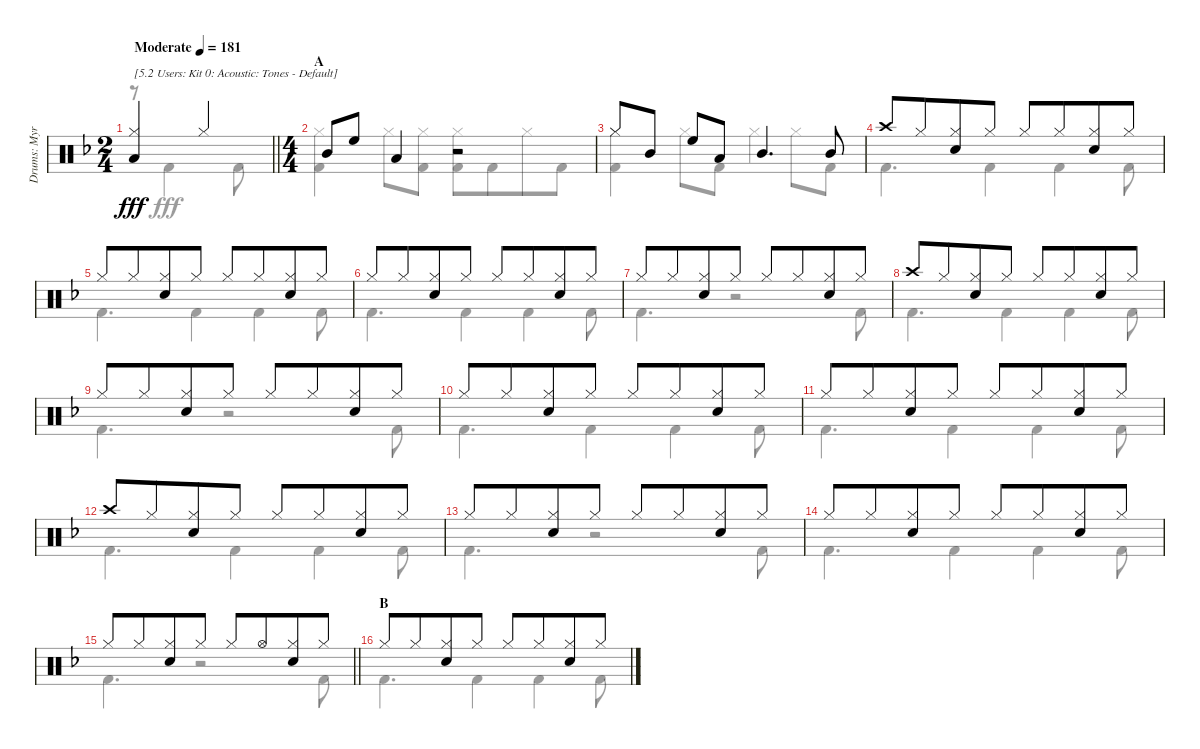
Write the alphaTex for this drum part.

\track ("Drums: Myron" "Drums: Myr") {instrument percussion}
\staff {score}
\articulation defaults
\voice
\ts (2 4)
\tempo (181 "Moderate")
\clef neutral
\barLineRight lightlight
\ks f
("Hi-Hat (closed)" "Low Tom (hit)").4{txt "[5.2 Users: Kit 0: Acoustic: Tones - Default]" dy fff} "Hi-Hat (closed)".4 |
\ts (4 4)
\section ("" "A")
"Mid Tom (hit)".8 "High Floor Tom (hit)".8 "Low Tom (hit)".4 r.2 |
"Hi-Hat (closed)".8 "Mid Tom (hit)".8 "High Floor Tom (hit)".8 "Low Tom (hit)".8 "Mid Tom (hit)".4{d} "Mid Tom (hit)".8 |
"Crash high (hit)".8 "Hi-Hat (closed)".8{beam merge} ("Hi-Hat (closed)" "Electric Snare (hit)").8 "Hi-Hat (closed)".8 "Hi-Hat (closed)".8 "Hi-Hat (closed)".8{beam merge} ("Hi-Hat (closed)" "Electric Snare (hit)").8 "Hi-Hat (closed)".8 |
"Hi-Hat (closed)".8 "Hi-Hat (closed)".8{beam merge} ("Hi-Hat (closed)" "Electric Snare (hit)").8 "Hi-Hat (closed)".8 "Hi-Hat (closed)".8 "Hi-Hat (closed)".8{beam merge} ("Hi-Hat (closed)" "Electric Snare (hit)").8 "Hi-Hat (closed)".8 |
"Hi-Hat (closed)".8 "Hi-Hat (closed)".8{beam merge} ("Hi-Hat (closed)" "Electric Snare (hit)").8 "Hi-Hat (closed)".8 "Hi-Hat (closed)".8 "Hi-Hat (closed)".8{beam merge} ("Hi-Hat (closed)" "Electric Snare (hit)").8 "Hi-Hat (closed)".8 |
"Hi-Hat (closed)".8 "Hi-Hat (closed)".8{beam merge} ("Hi-Hat (closed)" "Electric Snare (hit)").8 "Hi-Hat (closed)".8 "Hi-Hat (closed)".8 "Hi-Hat (closed)".8{beam merge} ("Hi-Hat (closed)" "Electric Snare (hit)").8 "Hi-Hat (closed)".8 |
"Crash high (hit)".8 "Hi-Hat (closed)".8{beam merge} ("Hi-Hat (closed)" "Electric Snare (hit)").8 "Hi-Hat (closed)".8 "Hi-Hat (closed)".8 "Hi-Hat (closed)".8{beam merge} ("Hi-Hat (closed)" "Electric Snare (hit)").8 "Hi-Hat (closed)".8 |
"Hi-Hat (closed)".8 "Hi-Hat (closed)".8{beam merge} ("Hi-Hat (closed)" "Electric Snare (hit)").8 "Hi-Hat (closed)".8 "Hi-Hat (closed)".8 "Hi-Hat (closed)".8{beam merge} ("Hi-Hat (closed)" "Electric Snare (hit)").8 "Hi-Hat (closed)".8 |
"Hi-Hat (closed)".8 "Hi-Hat (closed)".8{beam merge} ("Hi-Hat (closed)" "Electric Snare (hit)").8 "Hi-Hat (closed)".8 "Hi-Hat (closed)".8 "Hi-Hat (closed)".8{beam merge} ("Hi-Hat (closed)" "Electric Snare (hit)").8 "Hi-Hat (closed)".8 |
"Hi-Hat (closed)".8 "Hi-Hat (closed)".8{beam merge} ("Hi-Hat (closed)" "Electric Snare (hit)").8 "Hi-Hat (closed)".8 "Hi-Hat (closed)".8 "Hi-Hat (closed)".8{beam merge} ("Hi-Hat (closed)" "Electric Snare (hit)").8 "Hi-Hat (closed)".8 |
"Crash high (hit)".8 "Hi-Hat (closed)".8{beam merge} ("Hi-Hat (closed)" "Electric Snare (hit)").8 "Hi-Hat (closed)".8 "Hi-Hat (closed)".8 "Hi-Hat (closed)".8{beam merge} ("Hi-Hat (closed)" "Electric Snare (hit)").8 "Hi-Hat (closed)".8 |
"Hi-Hat (closed)".8 "Hi-Hat (closed)".8{beam merge} ("Hi-Hat (closed)" "Electric Snare (hit)").8 "Hi-Hat (closed)".8 "Hi-Hat (closed)".8 "Hi-Hat (closed)".8{beam merge} ("Hi-Hat (closed)" "Electric Snare (hit)").8 "Hi-Hat (closed)".8 |
"Hi-Hat (closed)".8 "Hi-Hat (closed)".8{beam merge} ("Hi-Hat (closed)" "Electric Snare (hit)").8 "Hi-Hat (closed)".8 "Hi-Hat (closed)".8 "Hi-Hat (closed)".8{beam merge} ("Hi-Hat (closed)" "Electric Snare (hit)").8 "Hi-Hat (closed)".8 |
\barLineRight lightlight "Hi-Hat (closed)".8 "Hi-Hat (closed)".8{beam merge}
("Hi-Hat (closed)" "Electric Snare (hit)").8 "Hi-Hat (closed)".8 "Hi-Hat (closed)".8 "Hi-Hat (open)".8{beam merge} ("Hi-Hat (closed)" "Electric Snare (hit)").8 "Hi-Hat (closed)".8 |
\section ("" "B")
"Hi-Hat (closed)".8 "Hi-Hat (closed)".8{beam merge} ("Hi-Hat (closed)" "Electric Snare (hit)").8 "Hi-Hat (closed)".8 "Hi-Hat (closed)".8 "Hi-Hat (closed)".8{beam merge} ("Hi-Hat (closed)" "Electric Snare (hit)").8 "Hi-Hat (closed)".8
\voice
\clef neutral
\ottava regular
\simile none
\barLineRight lightlight
\ks f
r.8{dy fff} "Kick (hit) 2".4 "Kick (hit) 2".8 |
("Hi-Hat (closed)" "Kick (hit) 2").4 "Hi-Hat (closed)".8 ("Hi-Hat (closed)" "Kick (hit) 2").8 ("Hi-Hat (closed)" "Kick (hit) 2").8 "Kick (hit) 2".8{beam merge} "Hi-Hat (closed)".8 "Kick (hit) 2".8 |
("Hi-Hat (closed)" "Kick (hit) 2").4 "Hi-Hat (closed)".8 "Kick (hit) 2".8 "Hi-Hat (closed)".4 "Hi-Hat (closed)".8 "Kick (hit) 2".8 |
"Kick (hit) 2".4{d} "Kick (hit) 2".4 "Kick (hit) 2".4 "Kick (hit) 2".8 |
"Kick (hit) 2".4{d} "Kick (hit) 2".4 "Kick (hit) 2".4 "Kick (hit) 2".8 |
"Kick (hit) 2".4{d} "Kick (hit) 2".4 "Kick (hit) 2".4 "Kick (hit) 2".8 |
"Kick (hit) 2".4{d} r.2 "Kick (hit) 2".8 |
"Kick (hit) 2".4{d} "Kick (hit) 2".4 "Kick (hit) 2".4 "Kick (hit) 2".8 |
"Kick (hit) 2".4{d} r.2 "Kick (hit) 2".8 |
"Kick (hit) 2".4{d} "Kick (hit) 2".4 "Kick (hit) 2".4 "Kick (hit) 2".8 |
"Kick (hit) 2".4{d} "Kick (hit) 2".4 "Kick (hit) 2".4 "Kick (hit) 2".8 |
"Kick (hit) 2".4{d} "Kick (hit) 2".4 "Kick (hit) 2".4 "Kick (hit) 2".8 |
"Kick (hit) 2".4{d} r.2 "Kick (hit) 2".8 |
"Kick (hit) 2".4{d} "Kick (hit) 2".4 "Kick (hit) 2".4 "Kick (hit) 2".8 |
\barLineRight lightlight "Kick (hit) 2".4{d}
r.2 "Kick (hit) 2".8 |
"Kick (hit) 2".4{d} "Kick (hit) 2".4 "Kick (hit) 2".4 "Kick (hit) 2".8
